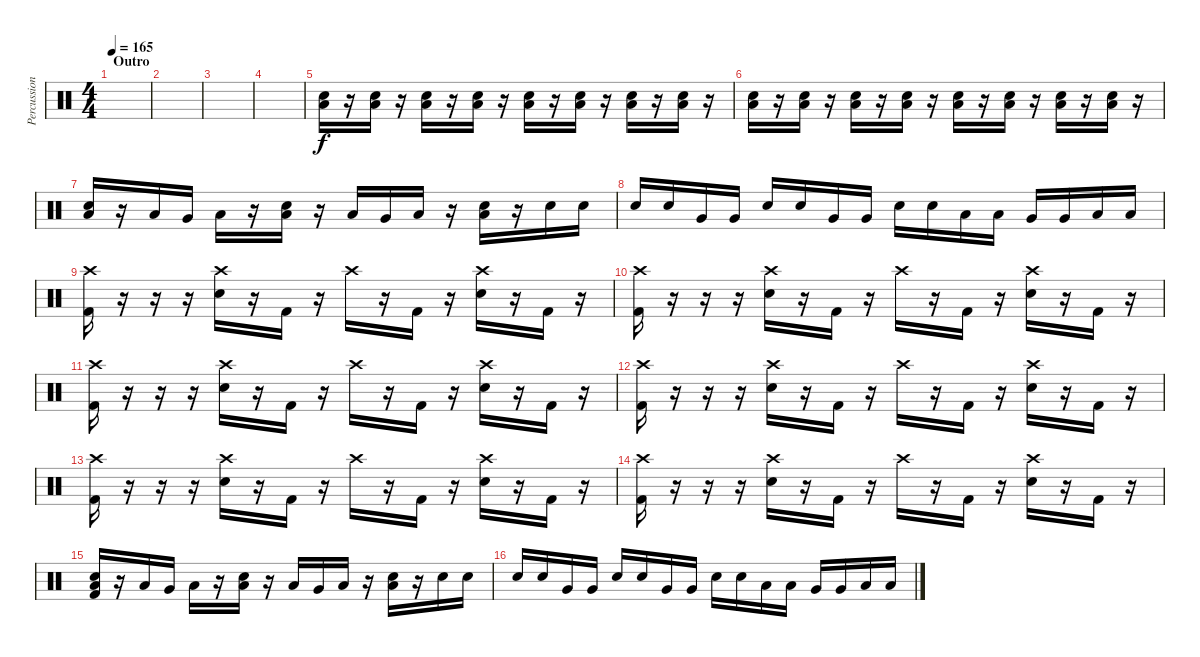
\track ("Percussion" "Percussion") {instrument percussion}
\staff {score}
\articulation defaults
\ts (4 4)
\section ("" "Outro")
\tempo 165
\clef neutral
\ks c
|
|
|
|
("Low Floor Tom (hit)" "Snare (hit) 2").16 r.16 ("Low Floor Tom (hit)" "Snare (hit) 2").16 r.16 ("Low Floor Tom (hit)" "Snare (hit) 2").16 r.16 ("Low Floor Tom (hit)" "Snare (hit) 2").16 r.16 ("Low Floor Tom (hit)" "Snare (hit) 2").16 r.16 ("Low Floor Tom (hit)" "Snare (hit) 2").16 r.16 ("Low Floor Tom (hit)" "Snare (hit) 2").16 r.16 ("Low Floor Tom (hit)" "Snare (hit) 2").16 r.16 |
("Low Floor Tom (hit)" "Snare (hit) 2").16 r.16 ("Low Floor Tom (hit)" "Snare (hit) 2").16 r.16 ("Low Floor Tom (hit)" "Snare (hit) 2").16 r.16 ("Low Floor Tom (hit)" "Snare (hit) 2").16 r.16 ("Low Floor Tom (hit)" "Snare (hit) 2").16 r.16 ("Low Floor Tom (hit)" "Snare (hit) 2").16 r.16 ("Low Floor Tom (hit)" "Snare (hit) 2").16 r.16 ("Low Floor Tom (hit)" "Snare (hit) 2").16 r.16 |
("Low Floor Tom (hit)" "Snare (hit) 2").16 r.16 "Low Tom (hit)".16 "Very Low Tom (hit)".16 "Low Floor Tom (hit)".16 r.16 ("Low Floor Tom (hit)" "Snare (hit) 2").16 r.16 "Low Tom (hit)".16 "Very Low Tom (hit)".16 "Low Floor Tom (hit)".16 r.16 ("Low Floor Tom (hit)" "Snare (hit) 2").16 r.16 "Snare (hit) 2".16 "Snare (hit) 2".16 |
"Snare (hit) 2".16 "Snare (hit) 2".16 "Very Low Tom (hit)".16 "Very Low Tom (hit)".16 "Snare (hit) 2".16 "Snare (hit) 2".16 "Very Low Tom (hit)".16 "Very Low Tom (hit)".16 "Snare (hit) 2".16 "Snare (hit) 2".16 "Low Tom (hit)".16 "Low Tom (hit)".16 "Very Low Tom (hit)".16 "Very Low Tom (hit)".16 "Low Floor Tom (hit)".16 "Low Floor Tom (hit)".16 |
("Crash high (hit)" "Kick (hit) 2").16 r.16 r.16 r.16 ("Crash high (hit)" "Snare (hit) 2").16 r.16 "Kick (hit) 2".16 r.16 "Crash high (hit)".16 r.16 "Kick (hit) 2".16 r.16 ("Crash high (hit)" "Snare (hit) 2").16 r.16 "Kick (hit) 2".16 r.16 |
("Crash high (hit)" "Kick (hit) 2").16 r.16 r.16 r.16 ("Crash high (hit)" "Snare (hit) 2").16 r.16 "Kick (hit) 2".16 r.16 "Crash high (hit)".16 r.16 "Kick (hit) 2".16 r.16 ("Crash high (hit)" "Snare (hit) 2").16 r.16 "Kick (hit) 2".16 r.16 |
("Crash high (hit)" "Kick (hit) 2").16 r.16 r.16 r.16 ("Crash high (hit)" "Snare (hit) 2").16 r.16 "Kick (hit) 2".16 r.16 "Crash high (hit)".16 r.16 "Kick (hit) 2".16 r.16 ("Crash high (hit)" "Snare (hit) 2").16 r.16 "Kick (hit) 2".16 r.16 |
("Crash high (hit)" "Kick (hit) 2").16 r.16 r.16 r.16 ("Crash high (hit)" "Snare (hit) 2").16 r.16 "Kick (hit) 2".16 r.16 "Crash high (hit)".16 r.16 "Kick (hit) 2".16 r.16 ("Crash high (hit)" "Snare (hit) 2").16 r.16 "Kick (hit) 2".16 r.16 |
("Crash high (hit)" "Kick (hit) 2").16 r.16 r.16 r.16 ("Crash high (hit)" "Snare (hit) 2").16 r.16 "Kick (hit) 2".16 r.16 "Crash high (hit)".16 r.16 "Kick (hit) 2".16 r.16 ("Crash high (hit)" "Snare (hit) 2").16 r.16 "Kick (hit) 2".16 r.16 |
("Crash high (hit)" "Kick (hit) 2").16 r.16 r.16 r.16 ("Crash high (hit)" "Snare (hit) 2").16 r.16 "Kick (hit) 2".16 r.16 "Crash high (hit)".16 r.16 "Kick (hit) 2".16 r.16 ("Crash high (hit)" "Snare (hit) 2").16 r.16 "Kick (hit) 2".16 r.16 |
("Low Floor Tom (hit)" "Snare (hit) 2" "Kick (hit) 2").16 r.16 "Low Tom (hit)".16 "Very Low Tom (hit)".16 "Low Floor Tom (hit)".16 r.16 ("Low Floor Tom (hit)" "Snare (hit) 2").16 r.16 "Low Tom (hit)".16 "Very Low Tom (hit)".16 "Low Floor Tom (hit)".16 r.16 ("Low Floor Tom (hit)" "Snare (hit) 2").16 r.16 "Snare (hit) 2".16 "Snare (hit) 2".16 |
"Snare (hit) 2".16 "Snare (hit) 2".16 "Very Low Tom (hit)".16 "Very Low Tom (hit)".16 "Snare (hit) 2".16 "Snare (hit) 2".16 "Very Low Tom (hit)".16 "Very Low Tom (hit)".16 "Snare (hit) 2".16 "Snare (hit) 2".16 "Low Tom (hit)".16 "Low Tom (hit)".16 "Very Low Tom (hit)".16 "Very Low Tom (hit)".16 "Low Floor Tom (hit)".16 "Low Floor Tom (hit)".16
